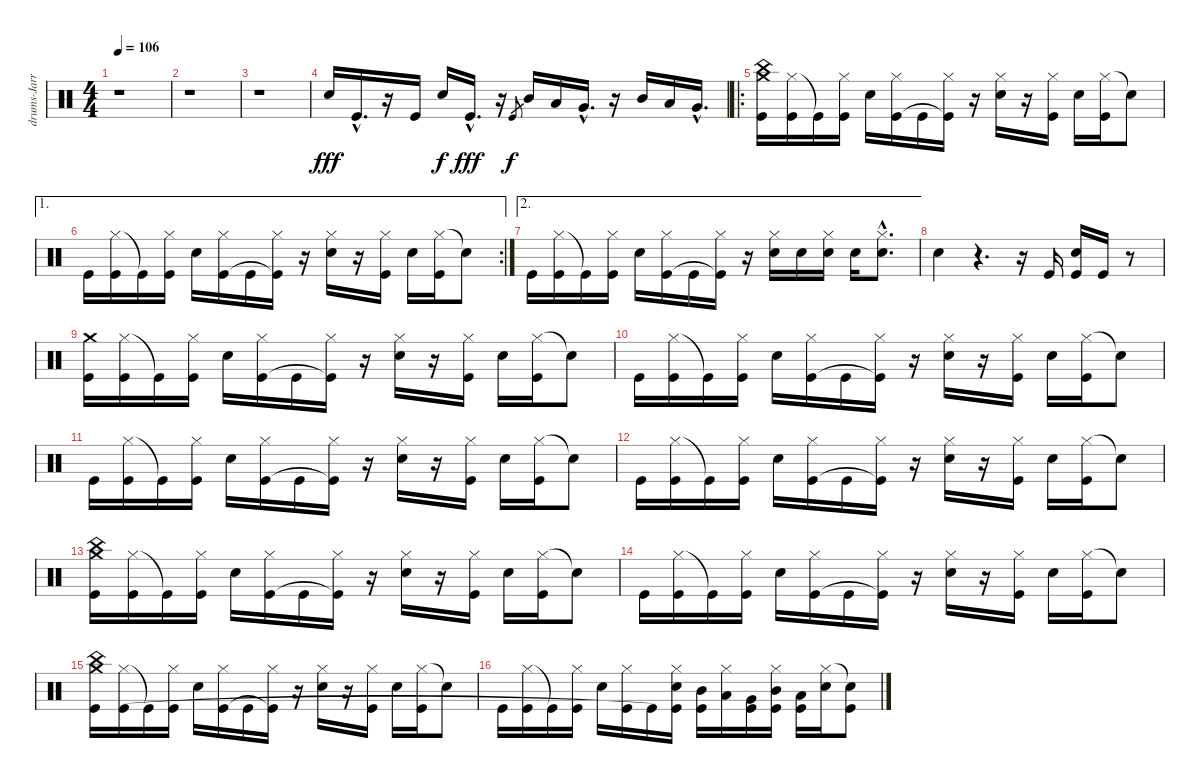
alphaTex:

\track ("drums-Jarrod Montague" "drums-Jarr") {instrument percussion}
\staff {score}
\articulation defaults
\ts (4 4)
\tempo 106
\clef neutral
\ks c
r.1{dy fff} |
r.1 |
r.1 |
"Snare (hit) 2".16 "Kick (hit)"{hac}.16{d} r.16 "Kick (hit)".16 "Snare (hit) 2".16{dy f} "Kick (hit)"{hac}.16{d dy fff} r.16 "Kick (hit)".8{gr dy f} "Mid Tom (hit)".16 "Low Tom (hit)".16 "Very Low Tom (hit)"{hac}.16{d} r.16 "Mid Tom (hit)".16 "Low Tom (hit)".16 "Very Low Tom (hit)"{hac}.16{d} |
\ro
("Crash medium (hit)" "China (hit)" "Kick (hit)").16 ("Hi-Hat (closed)" "Kick (hit)").16 "Kick (hit)"{t}.16 ("Hi-Hat (closed)" "Kick (hit)").16 "Snare (hit) 2".16 ("Hi-Hat (closed)" "Kick (hit)").16 "Kick (hit)".16 ("Hi-Hat (closed)" "Kick (hit)"{t}).16 r.16 ("Hi-Hat (closed)" "Snare (hit) 2").16 r.16 ("Hi-Hat (closed)" "Kick (hit)").16 "Snare (hit) 2".16 ("Hi-Hat (closed)" "Kick (hit)").16 "Snare (hit)"{t}.8 |
\ae 1
\rc 2 "Kick (hit)".16
("Hi-Hat (closed)" "Kick (hit)").16 "Kick (hit)"{t}.16 ("Hi-Hat (closed)" "Kick (hit)").16 "Snare (hit) 2".16 ("Hi-Hat (closed)" "Kick (hit)").16 "Kick (hit)".16 ("Hi-Hat (closed)" "Kick (hit)"{t}).16 r.16 ("Hi-Hat (closed)" "Snare (hit) 2").16 r.16 ("Hi-Hat (closed)" "Kick (hit)").16 "Snare (hit) 2".16 ("Hi-Hat (closed)" "Kick (hit)").16 "Snare (hit)"{t}.8 |
\ae 2 "Kick (hit)".16
("Hi-Hat (closed)" "Kick (hit)").16 "Kick (hit)"{t}.16 ("Hi-Hat (closed)" "Kick (hit)").16 "Snare (hit) 2".16 ("Hi-Hat (closed)" "Kick (hit)").16 "Kick (hit)".16 ("Hi-Hat (closed)" "Kick (hit)"{t}).16 r.16 ("Hi-Hat (closed)" "Snare (hit) 2").16 "Snare (hit) 2".16 ("Hi-Hat (closed)" "Snare (hit) 2").16 "Snare (hit) 2".16 ("Hi-Hat (closed)"{hac} "Snare (hit) 2"{hac}).8{d} |
"Snare (hit) 2".4 r.4{d} r.16 "Kick (hit)".16 ("Snare (hit) 2" "Kick (hit)").16 "Kick (hit)".16 r.8 |
("Crash medium (hit)" "Kick (hit)").16 ("Hi-Hat (closed)" "Kick (hit)").16 "Kick (hit)"{t}.16 ("Hi-Hat (closed)" "Kick (hit)").16 "Snare (hit) 2".16 ("Hi-Hat (closed)" "Kick (hit)").16 "Kick (hit)".16 ("Hi-Hat (closed)" "Kick (hit)"{t}).16 r.16 ("Hi-Hat (closed)" "Snare (hit) 2").16 r.16 ("Hi-Hat (closed)" "Kick (hit)").16 "Snare (hit) 2".16 ("Hi-Hat (closed)" "Kick (hit)").16 "Snare (hit)"{t}.8 |
"Kick (hit)".16 ("Hi-Hat (closed)" "Kick (hit)").16 "Kick (hit)"{t}.16 ("Hi-Hat (closed)" "Kick (hit)").16 "Snare (hit) 2".16 ("Hi-Hat (closed)" "Kick (hit)").16 "Kick (hit)".16 ("Hi-Hat (closed)" "Kick (hit)"{t}).16 r.16 ("Hi-Hat (closed)" "Snare (hit) 2").16 r.16 ("Hi-Hat (closed)" "Kick (hit)").16 "Snare (hit) 2".16 ("Hi-Hat (closed)" "Kick (hit)").16 "Snare (hit)"{t}.8 |
"Kick (hit)".16 ("Hi-Hat (closed)" "Kick (hit)").16 "Kick (hit)"{t}.16 ("Hi-Hat (closed)" "Kick (hit)").16 "Snare (hit) 2".16 ("Hi-Hat (closed)" "Kick (hit)").16 "Kick (hit)".16 ("Hi-Hat (closed)" "Kick (hit)"{t}).16 r.16 ("Hi-Hat (closed)" "Snare (hit) 2").16 r.16 ("Hi-Hat (closed)" "Kick (hit)").16 "Snare (hit) 2".16 ("Hi-Hat (closed)" "Kick (hit)").16 "Snare (hit)"{t}.8 |
"Kick (hit)".16 ("Hi-Hat (closed)" "Kick (hit)").16 "Kick (hit)"{t}.16 ("Hi-Hat (closed)" "Kick (hit)").16 "Snare (hit) 2".16 ("Hi-Hat (closed)" "Kick (hit)").16 "Kick (hit)".16 ("Hi-Hat (closed)" "Kick (hit)"{t}).16 r.16 ("Hi-Hat (closed)" "Snare (hit) 2").16 r.16 ("Hi-Hat (closed)" "Kick (hit)").16 "Snare (hit) 2".16 ("Hi-Hat (closed)" "Kick (hit)").16 "Snare (hit)"{t}.8 |
("Crash medium (hit)" "China (hit)" "Kick (hit)").16 ("Hi-Hat (closed)" "Kick (hit)").16 "Kick (hit)"{t}.16 ("Hi-Hat (closed)" "Kick (hit)").16 "Snare (hit) 2".16 ("Hi-Hat (closed)" "Kick (hit)").16 "Kick (hit)".16 ("Hi-Hat (closed)" "Kick (hit)"{t}).16 r.16 ("Hi-Hat (closed)" "Snare (hit) 2").16 r.16 ("Hi-Hat (closed)" "Kick (hit)").16 "Snare (hit) 2".16 ("Hi-Hat (closed)" "Kick (hit)").16 "Snare (hit)"{t}.8 |
"Kick (hit)".16 ("Hi-Hat (closed)" "Kick (hit)").16 "Kick (hit)"{t}.16 ("Hi-Hat (closed)" "Kick (hit)").16 "Snare (hit) 2".16 ("Hi-Hat (closed)" "Kick (hit)").16 "Kick (hit)".16 ("Hi-Hat (closed)" "Kick (hit)"{t}).16 r.16 ("Hi-Hat (closed)" "Snare (hit) 2").16 r.16 ("Hi-Hat (closed)" "Kick (hit)").16 "Snare (hit) 2".16 ("Hi-Hat (closed)" "Kick (hit)").16 "Snare (hit)"{t}.8 |
("Crash medium (hit)" "China (hit)" "Kick (hit)").16 ("Hi-Hat (closed)" "Kick (hit)").16 "Kick (hit)"{t}.16 ("Hi-Hat (closed)" "Kick (hit)").16 "Snare (hit) 2".16 ("Hi-Hat (closed)" "Kick (hit)").16 "Kick (hit)".16 ("Hi-Hat (closed)" "Kick (hit)"{t}).16 r.16 ("Hi-Hat (closed)" "Snare (hit) 2").16 r.16 ("Hi-Hat (closed)" "Kick (hit)").16 "Snare (hit) 2".16 ("Hi-Hat (closed)" "Kick (hit)").16 "Snare (hit)"{t}.8 |
"Kick (hit)".16 ("Hi-Hat (closed)" "Kick (hit)").16 "Kick (hit)"{t}.16 ("Hi-Hat (closed)" "Kick (hit)").16 "Snare (hit) 2".16 ("Hi-Hat (closed)" "Kick (hit)").16 "Kick (hit)".16 ("Hi-Hat (closed)" "Snare (hit) 2" "Kick (hit)"{t}).16 ("Mid Tom (hit)" "Kick (hit)").16 ("Hi-Hat (closed)" "Low Tom (hit)").16 ("Very Low Tom (hit)" "Kick (hit)").16 ("Hi-Hat (closed)" "Mid Tom (hit)" "Kick (hit)").16 ("Low Tom (hit)" "Kick (hit)").16 ("Hi-Hat (closed)" "Snare (hit) 2").16 ("Snare (hit)"{t} "Kick (hit)").8
